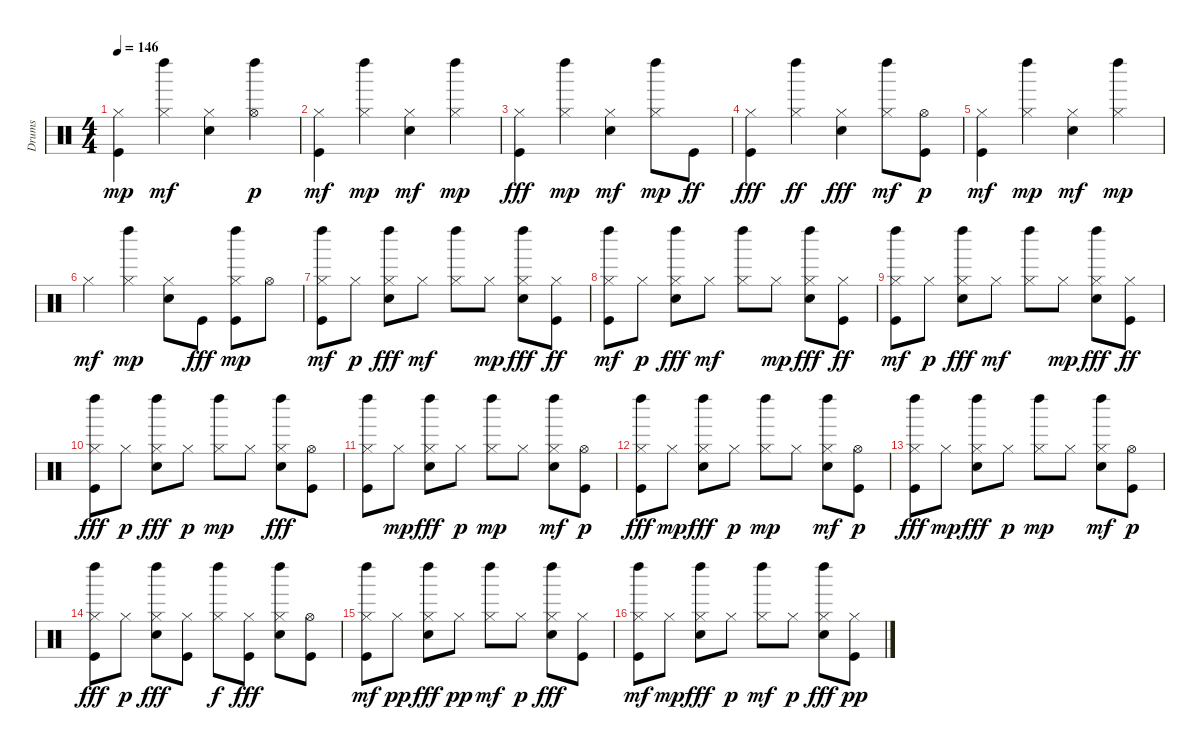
\track ("Drums" "Drums") {instrument percussion}
\staff {score}
\articulation defaults
\ts (4 4)
\tempo 146
\clef neutral
\ks c
("Kick (hit)" "Hi-Hat (closed)").4{dy mp} ("Hi-Hat (closed)" "Left Maraca (hit)").4{dy mf} ("Electric Snare (hit)" "Hi-Hat (closed)").4 ("Left Maraca (hit)" "Hi-Hat (open)").4{dy p} |
("Kick (hit)" "Hi-Hat (closed)").4{dy mf} ("Hi-Hat (closed)" "Left Maraca (hit)").4{dy mp} ("Electric Snare (hit)" "Hi-Hat (closed)").4{dy mf} ("Left Maraca (hit)" "Hi-Hat (closed)").4{dy mp} |
("Hi-Hat (closed)" "Kick (hit)").4{dy fff} ("Left Maraca (hit)" "Hi-Hat (closed)").4{dy mp} ("Electric Snare (hit)" "Hi-Hat (closed)").4{dy mf} ("Hi-Hat (closed)" "Left Maraca (hit)").8{dy mp} "Kick (hit)".8{dy ff} |
("Hi-Hat (closed)" "Kick (hit)").4{dy fff} ("Hi-Hat (closed)" "Left Maraca (hit)").4{dy ff} ("Hi-Hat (closed)" "Electric Snare (hit)").4{dy fff} ("Left Maraca (hit)" "Hi-Hat (closed)").8{dy mf} ("Kick (hit)" "Hi-Hat (open)").8{dy p} |
("Kick (hit)" "Hi-Hat (closed)").4{dy mf} ("Hi-Hat (closed)" "Left Maraca (hit)").4{dy mp} ("Electric Snare (hit)" "Hi-Hat (closed)").4{dy mf} ("Left Maraca (hit)" "Hi-Hat (closed)").4{dy mp} |
"Hi-Hat (closed)".4{dy mf} ("Left Maraca (hit)" "Hi-Hat (closed)").4{dy mp} ("Electric Snare (hit)" "Hi-Hat (closed)").8 "Kick (hit)".8{dy fff} ("Kick (hit)" "Left Maraca (hit)" "Hi-Hat (closed)").8{dy mp} "Hi-Hat (open)".8 |
("Left Maraca (hit)" "Kick (hit)" "Hi-Hat (closed)").8{dy mf} "Hi-Hat (closed)".8{dy p} ("Hi-Hat (closed)" "Left Maraca (hit)" "Electric Snare (hit)").8{dy fff} "Hi-Hat (closed)".8{dy mf} ("Hi-Hat (closed)" "Left Maraca (hit)").8 "Hi-Hat (closed)".8{dy mp} ("Left Maraca (hit)" "Electric Snare (hit)" "Hi-Hat (closed)").8{dy fff} ("Hi-Hat (closed)" "Kick (hit)").8{dy ff} |
("Left Maraca (hit)" "Kick (hit)" "Hi-Hat (closed)").8{dy mf} "Hi-Hat (closed)".8{dy p} ("Hi-Hat (closed)" "Left Maraca (hit)" "Electric Snare (hit)").8{dy fff} "Hi-Hat (closed)".8{dy mf} ("Hi-Hat (closed)" "Left Maraca (hit)").8 "Hi-Hat (closed)".8{dy mp} ("Left Maraca (hit)" "Electric Snare (hit)" "Hi-Hat (closed)").8{dy fff} ("Hi-Hat (closed)" "Kick (hit)").8{dy ff} |
("Left Maraca (hit)" "Kick (hit)" "Hi-Hat (closed)").8{dy mf} "Hi-Hat (closed)".8{dy p} ("Hi-Hat (closed)" "Left Maraca (hit)" "Electric Snare (hit)").8{dy fff} "Hi-Hat (closed)".8{dy mf} ("Hi-Hat (closed)" "Left Maraca (hit)").8 "Hi-Hat (closed)".8{dy mp} ("Left Maraca (hit)" "Electric Snare (hit)" "Hi-Hat (closed)").8{dy fff} ("Hi-Hat (closed)" "Kick (hit)").8{dy ff} |
("Left Maraca (hit)" "Kick (hit)" "Hi-Hat (closed)").8{dy fff} "Hi-Hat (closed)".8{dy p} ("Left Maraca (hit)" "Electric Snare (hit)" "Hi-Hat (closed)").8{dy fff} "Hi-Hat (closed)".8{dy p} ("Hi-Hat (closed)" "Left Maraca (hit)").8{dy mp} "Hi-Hat (closed)".8 ("Hi-Hat (closed)" "Electric Snare (hit)" "Left Maraca (hit)").8{dy fff} ("Hi-Hat (open)" "Kick (hit)").8 |
("Hi-Hat (closed)" "Left Maraca (hit)" "Kick (hit)").8 "Hi-Hat (closed)".8{dy mp} ("Left Maraca (hit)" "Electric Snare (hit)" "Hi-Hat (closed)").8{dy fff} "Hi-Hat (closed)".8{dy p} ("Left Maraca (hit)" "Hi-Hat (closed)").8{dy mp} "Hi-Hat (closed)".8 ("Left Maraca (hit)" "Electric Snare (hit)" "Hi-Hat (closed)").8{dy mf} ("Kick (hit)" "Hi-Hat (open)").8{dy p} |
("Hi-Hat (closed)" "Left Maraca (hit)" "Kick (hit)").8{dy fff} "Hi-Hat (closed)".8{dy mp} ("Left Maraca (hit)" "Electric Snare (hit)" "Hi-Hat (closed)").8{dy fff} "Hi-Hat (closed)".8{dy p} ("Left Maraca (hit)" "Hi-Hat (closed)").8{dy mp} "Hi-Hat (closed)".8 ("Left Maraca (hit)" "Electric Snare (hit)" "Hi-Hat (closed)").8{dy mf} ("Kick (hit)" "Hi-Hat (open)").8{dy p} |
("Hi-Hat (closed)" "Left Maraca (hit)" "Kick (hit)").8{dy fff} "Hi-Hat (closed)".8{dy mp} ("Left Maraca (hit)" "Electric Snare (hit)" "Hi-Hat (closed)").8{dy fff} "Hi-Hat (closed)".8{dy p} ("Left Maraca (hit)" "Hi-Hat (closed)").8{dy mp} "Hi-Hat (closed)".8 ("Left Maraca (hit)" "Electric Snare (hit)" "Hi-Hat (closed)").8{dy mf} ("Kick (hit)" "Hi-Hat (open)").8{dy p} |
("Hi-Hat (closed)" "Left Maraca (hit)" "Kick (hit)").8{dy fff} "Hi-Hat (closed)".8{dy p} ("Hi-Hat (closed)" "Left Maraca (hit)" "Electric Snare (hit)").8{dy fff} ("Hi-Hat (closed)" "Kick (hit)").8 ("Hi-Hat (closed)" "Left Maraca (hit)").8{dy f} ("Hi-Hat (closed)" "Kick (hit)").8{dy fff} ("Hi-Hat (closed)" "Left Maraca (hit)" "Electric Snare (hit)").8 ("Hi-Hat (open)" "Kick (hit)").8 |
("Hi-Hat (closed)" "Kick (hit)" "Left Maraca (hit)").8{dy mf} "Hi-Hat (closed)".8{dy pp} ("Electric Snare (hit)" "Left Maraca (hit)" "Hi-Hat (closed)").8{dy fff} "Hi-Hat (closed)".8{dy pp} ("Hi-Hat (closed)" "Left Maraca (hit)").8{dy mf} "Hi-Hat (closed)".8{dy p} ("Electric Snare (hit)" "Hi-Hat (closed)" "Left Maraca (hit)").8{dy fff} ("Hi-Hat (closed)" "Kick (hit)").8 |
("Hi-Hat (closed)" "Kick (hit)" "Left Maraca (hit)").8{dy mf} "Hi-Hat (closed)".8{dy mp} ("Hi-Hat (closed)" "Electric Snare (hit)" "Left Maraca (hit)").8{dy fff} "Hi-Hat (closed)".8{dy p} ("Hi-Hat (closed)" "Left Maraca (hit)").8{dy mf} "Hi-Hat (closed)".8{dy p} ("Hi-Hat (closed)" "Electric Snare (hit)" "Left Maraca (hit)").8{dy fff} ("Kick (hit)" "Hi-Hat (closed)").8{dy pp}
